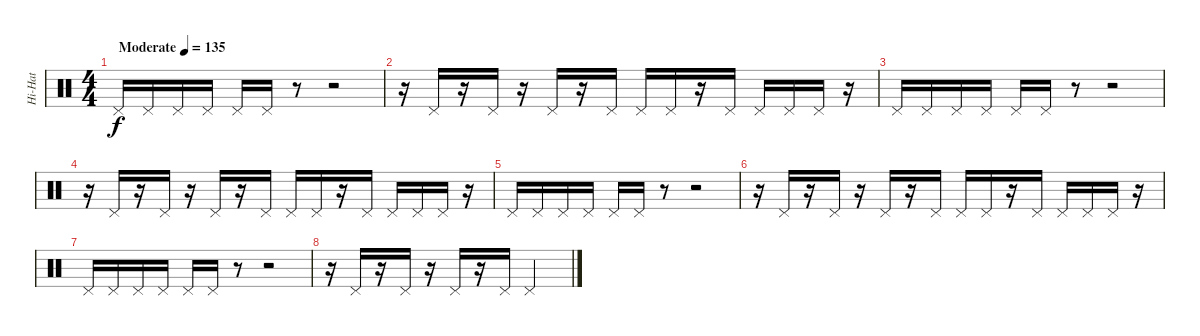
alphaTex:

\track ("Hi-Hat" "Hi-Hat") {instrument percussion}
\staff {score}
\articulation defaults
\ts (4 4)
\tempo (135 "Moderate")
\clef neutral
\ks c "Pedal Hi-Hat (hit)".16{dy f} "Pedal Hi-Hat (hit)".16 "Pedal Hi-Hat (hit)".16 "Pedal Hi-Hat (hit)".16 "Pedal Hi-Hat (hit)".16 "Pedal Hi-Hat (hit)".16
r.8 r.2 |
r.16 "Pedal Hi-Hat (hit)".16 r.16 "Pedal Hi-Hat (hit)".16 r.16 "Pedal Hi-Hat (hit)".16 r.16 "Pedal Hi-Hat (hit)".16 "Pedal Hi-Hat (hit)".16 "Pedal Hi-Hat (hit)".16 r.16 "Pedal Hi-Hat (hit)".16 "Pedal Hi-Hat (hit)".16 "Pedal Hi-Hat (hit)".16 "Pedal Hi-Hat (hit)".16 r.16 |
"Pedal Hi-Hat (hit)".16 "Pedal Hi-Hat (hit)".16 "Pedal Hi-Hat (hit)".16 "Pedal Hi-Hat (hit)".16 "Pedal Hi-Hat (hit)".16 "Pedal Hi-Hat (hit)".16 r.8 r.2 |
r.16 "Pedal Hi-Hat (hit)".16 r.16 "Pedal Hi-Hat (hit)".16 r.16 "Pedal Hi-Hat (hit)".16 r.16 "Pedal Hi-Hat (hit)".16 "Pedal Hi-Hat (hit)".16 "Pedal Hi-Hat (hit)".16 r.16 "Pedal Hi-Hat (hit)".16 "Pedal Hi-Hat (hit)".16 "Pedal Hi-Hat (hit)".16 "Pedal Hi-Hat (hit)".16 r.16 |
"Pedal Hi-Hat (hit)".16 "Pedal Hi-Hat (hit)".16 "Pedal Hi-Hat (hit)".16 "Pedal Hi-Hat (hit)".16 "Pedal Hi-Hat (hit)".16 "Pedal Hi-Hat (hit)".16 r.8 r.2 |
r.16 "Pedal Hi-Hat (hit)".16 r.16 "Pedal Hi-Hat (hit)".16 r.16 "Pedal Hi-Hat (hit)".16 r.16 "Pedal Hi-Hat (hit)".16 "Pedal Hi-Hat (hit)".16 "Pedal Hi-Hat (hit)".16 r.16 "Pedal Hi-Hat (hit)".16 "Pedal Hi-Hat (hit)".16 "Pedal Hi-Hat (hit)".16 "Pedal Hi-Hat (hit)".16 r.16 |
"Pedal Hi-Hat (hit)".16 "Pedal Hi-Hat (hit)".16 "Pedal Hi-Hat (hit)".16 "Pedal Hi-Hat (hit)".16 "Pedal Hi-Hat (hit)".16 "Pedal Hi-Hat (hit)".16 r.8 r.2 |
r.16 "Pedal Hi-Hat (hit)".16 r.16 "Pedal Hi-Hat (hit)".16 r.16 "Pedal Hi-Hat (hit)".16 r.16 "Pedal Hi-Hat (hit)".16 "Pedal Hi-Hat (hit)".2
